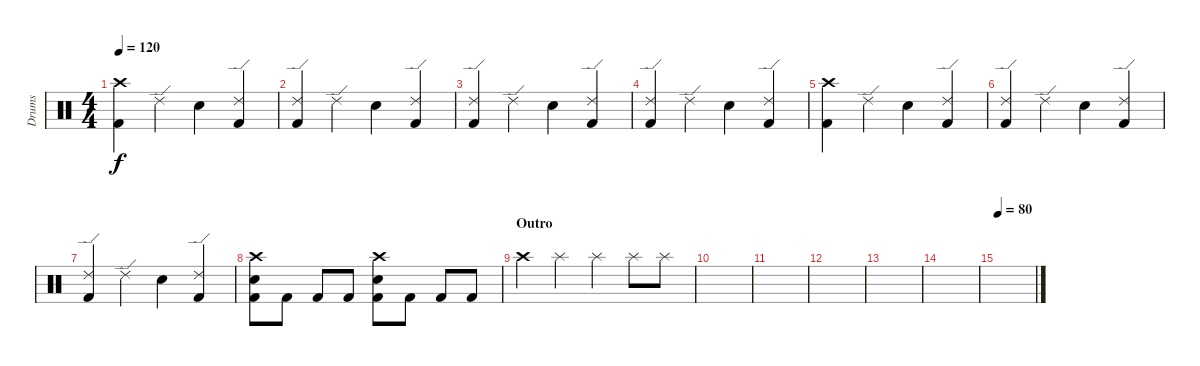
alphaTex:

\track ("Drums" "Drums") {instrument percussion}
\staff {score}
\articulation defaults
\ts (4 4)
\tempo 120
\clef neutral
\ks c
("Crash high (hit)" "Kick (hit) 2").4{dy f} "Ride (edge) 2".4 "Snare (hit) 2".4 ("Ride (edge) 2" "Kick (hit) 2").4 |
("Ride (edge) 2" "Kick (hit) 2").4 "Ride (edge) 2".4 "Snare (hit) 2".4 ("Ride (edge) 2" "Kick (hit) 2").4 |
("Ride (edge) 2" "Kick (hit) 2").4 "Ride (edge) 2".4 "Snare (hit) 2".4 ("Ride (edge) 2" "Kick (hit) 2").4 |
("Ride (edge) 2" "Kick (hit) 2").4 "Ride (edge) 2".4 "Snare (hit) 2".4 ("Ride (edge) 2" "Kick (hit) 2").4 |
("Crash high (hit)" "Kick (hit) 2").4 "Ride (edge) 2".4 "Snare (hit) 2".4 ("Ride (edge) 2" "Kick (hit) 2").4 |
("Ride (edge) 2" "Kick (hit) 2").4 "Ride (edge) 2".4 "Snare (hit) 2".4 ("Ride (edge) 2" "Kick (hit) 2").4 |
("Ride (edge) 2" "Kick (hit) 2").4 "Ride (edge) 2".4 "Snare (hit) 2".4 ("Ride (edge) 2" "Kick (hit) 2").4 |
("Crash high (hit)" "Snare (hit) 2" "Kick (hit) 2").8 "Kick (hit) 2".8 "Kick (hit) 2".8 "Kick (hit) 2".8 ("Crash high (hit)" "Snare (hit) 2" "Kick (hit) 2").8 "Kick (hit) 2".8 "Kick (hit) 2".8 "Kick (hit) 2".8 |
\section ("" "Outro")
"Crash high (hit)".4 "Splash (hit)".4 "Splash (hit)".4 "Splash (hit)".8 "Splash (hit)".8 |
|
|
|
|
|
\tempo 80
